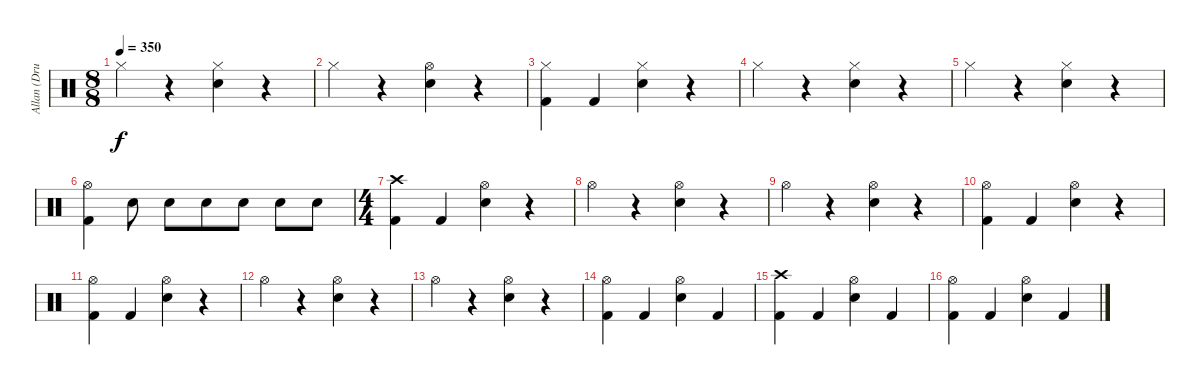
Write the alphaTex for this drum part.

\track ("Allan (Drums)" "Allan (Dru") {solo instrument percussion}
\staff {score}
\articulation defaults
\ts (8 8)
\tempo 350
\clef neutral
\ks c "Hi-Hat (closed)".4{dy f}
r.4 ("Hi-Hat (closed)" "Snare (hit) 2").4 r.4 |
"Hi-Hat (closed)".4 r.4 ("Hi-Hat (open)" "Snare (hit) 2").4 r.4 |
("Hi-Hat (closed)" "Kick (hit) 2").4 "Kick (hit) 2".4 ("Hi-Hat (closed)" "Snare (hit) 2").4 r.4 |
"Hi-Hat (closed)".4 r.4 ("Hi-Hat (closed)" "Snare (hit) 2").4 r.4 |
"Hi-Hat (closed)".4 r.4 ("Hi-Hat (closed)" "Snare (hit) 2").4 r.4 |
("Hi-Hat (open)" "Kick (hit) 2").4 "Snare (hit) 2".8 "Snare (hit) 2".8 "Snare (hit) 2".8 "Snare (hit) 2".8 "Snare (hit) 2".8 "Snare (hit) 2".8 |
\ts (4 4)
("Crash high (hit)" "Kick (hit) 2").4 "Kick (hit) 2".4 ("Hi-Hat (open)" "Snare (hit) 2").4 r.4 |
"Hi-Hat (open)".4 r.4 ("Hi-Hat (open)" "Snare (hit) 2").4 r.4 |
"Hi-Hat (open)".4 r.4 ("Hi-Hat (open)" "Snare (hit) 2").4 r.4 |
("Hi-Hat (open)" "Kick (hit) 2").4 "Kick (hit) 2".4 ("Hi-Hat (open)" "Snare (hit) 2").4 r.4 |
("Hi-Hat (open)" "Kick (hit) 2").4 "Kick (hit) 2".4 ("Hi-Hat (open)" "Snare (hit) 2").4 r.4 |
"Hi-Hat (open)".4 r.4 ("Hi-Hat (open)" "Snare (hit) 2").4 r.4 |
"Hi-Hat (open)".4 r.4 ("Hi-Hat (open)" "Snare (hit) 2").4 r.4 |
("Hi-Hat (open)" "Kick (hit) 2").4 "Kick (hit) 2".4 ("Hi-Hat (open)" "Snare (hit) 2").4 "Kick (hit) 2".4 |
("Crash high (hit)" "Kick (hit) 2").4 "Kick (hit) 2".4 ("Hi-Hat (open)" "Snare (hit) 2").4 "Kick (hit) 2".4 |
("Hi-Hat (open)" "Kick (hit) 2").4 "Kick (hit) 2".4 ("Hi-Hat (open)" "Snare (hit) 2").4 "Kick (hit) 2".4
